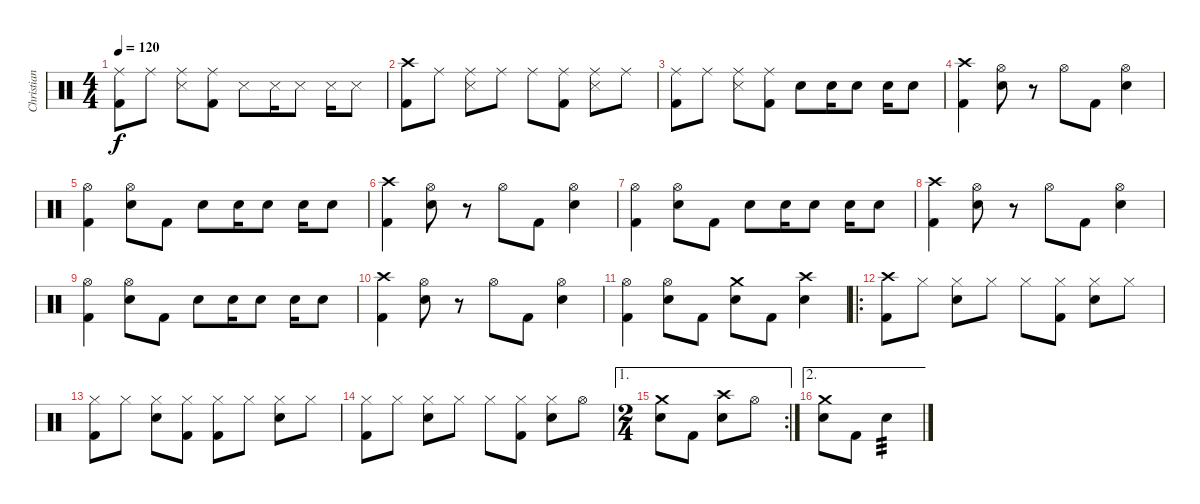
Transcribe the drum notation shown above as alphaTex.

\track ("Christian" "Christian") {instrument percussion}
\staff {score}
\articulation defaults
\ts (4 4)
\tempo 120
\clef neutral
\ks c
("Ride (middle)" "Kick (hit) 2").8{dy f} "Ride (middle)".8 ("Ride (middle)" "Snare (side stick) 3").8 ("Ride (middle)" "Kick (hit) 2").8 "Snare (side stick) 3".8 "Snare (side stick) 3".16 "Snare (side stick) 3".8 "Snare (side stick) 3".16 "Snare (side stick) 3".8 |
("Crash high (hit)" "Kick (hit) 2").8 "Ride (middle)".8 ("Ride (middle)" "Snare (side stick) 3").8 "Ride (middle)".8 "Ride (middle)".8 ("Ride (middle)" "Kick (hit) 2").8 ("Ride (middle)" "Snare (side stick) 3").8 "Ride (middle)".8 |
("Ride (middle)" "Kick (hit) 2").8 "Ride (middle)".8 ("Ride (middle)" "Snare (side stick) 3").8 ("Ride (middle)" "Kick (hit) 2").8 "Electric Snare (hit)".8 "Electric Snare (hit)".16 "Electric Snare (hit)".8 "Electric Snare (hit)".16 "Electric Snare (hit)".8 |
("Crash high (hit)" "Kick (hit) 2").4 ("Hi-Hat (open)" "Electric Snare (hit)").8 r.8 "Hi-Hat (open)".8 "Kick (hit) 2".8 ("Hi-Hat (open)" "Electric Snare (hit)").4 |
("Hi-Hat (open)" "Kick (hit) 2").4 ("Hi-Hat (open)" "Electric Snare (hit)").8 "Kick (hit) 2".8 "Electric Snare (hit)".8 "Electric Snare (hit)".16 "Electric Snare (hit)".8 "Electric Snare (hit)".16 "Electric Snare (hit)".8 |
("Crash high (hit)" "Kick (hit) 2").4 ("Hi-Hat (open)" "Electric Snare (hit)").8 r.8 "Hi-Hat (open)".8 "Kick (hit) 2".8 ("Hi-Hat (open)" "Electric Snare (hit)").4 |
("Hi-Hat (open)" "Kick (hit) 2").4 ("Hi-Hat (open)" "Electric Snare (hit)").8 "Kick (hit) 2".8 "Electric Snare (hit)".8 "Electric Snare (hit)".16 "Electric Snare (hit)".8 "Electric Snare (hit)".16 "Electric Snare (hit)".8 |
("Crash high (hit)" "Kick (hit) 2").4 ("Hi-Hat (open)" "Electric Snare (hit)").8 r.8 "Hi-Hat (open)".8 "Kick (hit) 2".8 ("Hi-Hat (open)" "Electric Snare (hit)").4 |
("Hi-Hat (open)" "Kick (hit) 2").4 ("Hi-Hat (open)" "Electric Snare (hit)").8 "Kick (hit) 2".8 "Electric Snare (hit)".8 "Electric Snare (hit)".16 "Electric Snare (hit)".8 "Electric Snare (hit)".16 "Electric Snare (hit)".8 |
("Crash high (hit)" "Kick (hit) 2").4 ("Hi-Hat (open)" "Electric Snare (hit)").8 r.8 "Hi-Hat (open)".8 "Kick (hit) 2".8 ("Hi-Hat (open)" "Electric Snare (hit)").4 |
("Hi-Hat (open)" "Kick (hit) 2").4 ("Hi-Hat (open)" "Electric Snare (hit)").8 "Kick (hit) 2".8 ("Crash medium (hit)" "Electric Snare (hit)").8 "Kick (hit) 2".8 ("Crash high (hit)" "Electric Snare (hit)").4 |
\ro
("Crash high (hit)" "Kick (hit) 2").8 "Hi-Hat (closed)".8 ("Hi-Hat (closed)" "Electric Snare (hit)").8 "Hi-Hat (closed)".8 "Hi-Hat (closed)".8 ("Hi-Hat (closed)" "Kick (hit) 2").8 ("Hi-Hat (closed)" "Electric Snare (hit)").8 "Hi-Hat (closed)".8 |
("Hi-Hat (closed)" "Kick (hit) 2").8 "Hi-Hat (closed)".8 ("Hi-Hat (closed)" "Electric Snare (hit)").8 ("Hi-Hat (closed)" "Kick (hit) 2").8 ("Hi-Hat (closed)" "Kick (hit) 2").8 "Hi-Hat (closed)".8 ("Hi-Hat (closed)" "Electric Snare (hit)").8 "Hi-Hat (closed)".8 |
("Hi-Hat (closed)" "Kick (hit) 2").8 "Hi-Hat (closed)".8 ("Hi-Hat (closed)" "Electric Snare (hit)").8 "Hi-Hat (closed)".8 "Hi-Hat (closed)".8 ("Hi-Hat (closed)" "Kick (hit) 2").8 ("Hi-Hat (closed)" "Electric Snare (hit)").8 "Hi-Hat (open)".8 |
\ae 1
\rc 2
\ts (2 4)
("Crash medium (hit)" "Electric Snare (hit)").8 "Kick (hit) 2".8 ("Crash high (hit)" "Electric Snare (hit)").8 "Hi-Hat (open)".8 |
\ae 2
("Crash medium (hit)" "Electric Snare (hit)").8 "Kick (hit) 2".8 "Electric Snare (hit)".4{tp 3}
